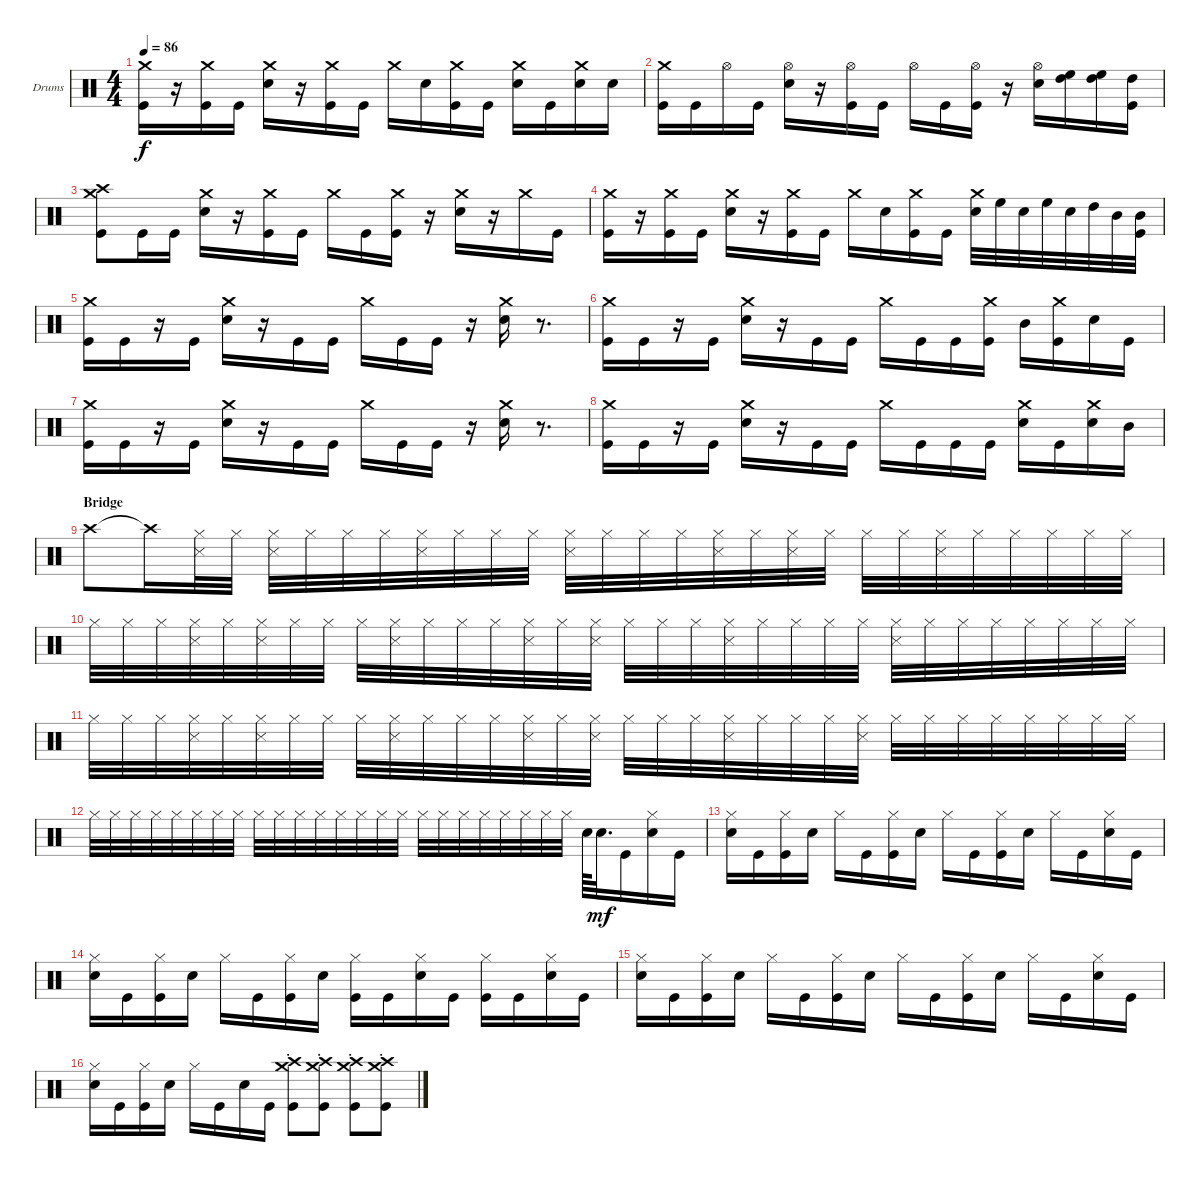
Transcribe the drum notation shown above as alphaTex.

\bracketExtendMode groupsimilarinstruments
\firstSystemTrackNameOrientation horizontal
\otherSystemsTrackNameOrientation horizontal
\track ("Drumkit" "Drums") {instrument percussion}
\staff {score}
\articulation defaults
\ts (4 4)
\tempo 86
\clef neutral
\ks c
("Crash medium (hit)" "Kick (hit)").16{dy f} r.16 ("Crash medium (hit)" "Kick (hit)").16 "Kick (hit)".16 ("Crash medium (hit)" "Snare (hit) 2").16 r.16 ("Crash medium (hit)" "Kick (hit)").16 "Kick (hit)".16 "Crash medium (hit)".16 "Snare (hit) 2".16 ("Crash medium (hit)" "Kick (hit)").16 "Kick (hit)".16 ("Crash medium (hit)" "Snare (hit) 2").16 "Kick (hit)".16 ("Crash medium (hit)" "Snare (hit) 2").16 "Snare (hit) 2".16 |
("Crash medium (hit)" "Kick (hit)").16 "Kick (hit)".16 "Hi-Hat (open)".16 "Kick (hit)".16 ("Hi-Hat (open)" "Snare (hit) 2").16 r.16 ("Hi-Hat (open)" "Kick (hit)").16 "Kick (hit)".16 "Hi-Hat (open)".16 "Kick (hit)".16 ("Hi-Hat (open)" "Kick (hit)").16 r.16 ("Hi-Hat (open)" "Snare (hit) 2").16 ("High Floor Tom (hit)" "High Tom (hit)").16 ("High Floor Tom (hit)" "High Tom (hit)").16 ("High Tom (hit)" "Kick (hit)").16 |
("Crash medium (hit)" "Crash high (hit)" "Kick (hit)").8 "Kick (hit)".16 "Kick (hit)".16 ("Crash medium (hit)" "Snare (hit) 2").16 r.16 ("Crash medium (hit)" "Kick (hit)").16 "Kick (hit)".16 "Crash medium (hit)".16 "Kick (hit)".16 ("Crash medium (hit)" "Kick (hit)").16 r.16 ("Crash medium (hit)" "Snare (hit) 2").16 r.16 "Crash medium (hit)".16 "Kick (hit)".16 |
("Crash medium (hit)" "Kick (hit)").16 r.16 ("Crash medium (hit)" "Kick (hit)").16 "Kick (hit)".16 ("Crash medium (hit)" "Snare (hit) 2").16 r.16 ("Crash medium (hit)" "Kick (hit)").16 "Kick (hit)".16 "Crash medium (hit)".16 "Snare (hit) 2".16 ("Crash medium (hit)" "Kick (hit)").16 "Kick (hit)".16 ("Crash medium (hit)" "Snare (hit) 2").32 "High Floor Tom (hit)".32 "Snare (hit) 2".32 "High Floor Tom (hit)".32 "Snare (hit) 2".32 "High Tom (hit)".32 "Mid Tom (hit)".32 ("Mid Tom (hit)" "Kick (hit)").32 |
("Crash medium (hit)" "Kick (hit)").16 "Kick (hit)".16 r.16 "Kick (hit)".16 ("Crash medium (hit)" "Snare (hit) 2").16 r.16 "Kick (hit)".16 "Kick (hit)".16 "Crash medium (hit)".16 "Kick (hit)".16 "Kick (hit)".16 r.16 ("Crash medium (hit)" "Snare (hit) 2").16 r.8{d} |
("Crash medium (hit)" "Kick (hit)").16 "Kick (hit)".16 r.16 "Kick (hit)".16 ("Crash medium (hit)" "Snare (hit) 2").16 r.16 "Kick (hit)".16 "Kick (hit)".16 "Crash medium (hit)".16 "Kick (hit)".16 "Kick (hit)".16 ("Kick (hit)" "Crash medium (hit)").16 "Mid Tom (hit)".16 ("Kick (hit)" "Crash medium (hit)").16 "Snare (hit) 2".16 "Kick (hit)".16 |
("Crash medium (hit)" "Kick (hit)").16 "Kick (hit)".16 r.16 "Kick (hit)".16 ("Crash medium (hit)" "Snare (hit) 2").16 r.16 "Kick (hit)".16 "Kick (hit)".16 "Crash medium (hit)".16 "Kick (hit)".16 "Kick (hit)".16 r.16 ("Crash medium (hit)" "Snare (hit) 2").16 r.8{d} |
("Crash medium (hit)" "Kick (hit)").16 "Kick (hit)".16 r.16 "Kick (hit)".16 ("Crash medium (hit)" "Snare (hit) 2").16 r.16 "Kick (hit)".16 "Kick (hit)".16 "Crash medium (hit)".16 "Kick (hit)".16 "Kick (hit)".16 "Kick (hit)".16 ("Crash medium (hit)" "Snare (hit) 2").16 "Kick (hit)".16 ("Crash medium (hit)" "Snare (hit) 2").16 "Mid Tom (hit)".16 |
\section ("" "Bridge")
\scale
0.50015 "Crash high (hit)".8 "Crash high (hit)"{t}.16 ("Hi-Hat (closed)" "Snare (side stick) 3").32 "Hi-Hat (closed)".32 ("Hi-Hat (closed)" "Snare (side stick) 3").32 "Hi-Hat (closed)".32 "Hi-Hat (closed)".32 "Hi-Hat (closed)".32 ("Hi-Hat (closed)" "Snare (side stick) 3").32 "Hi-Hat (closed)".32 "Hi-Hat (closed)".32 "Hi-Hat (closed)".32 ("Hi-Hat (closed)" "Snare (side stick) 3").32 "Hi-Hat (closed)".32 "Hi-Hat (closed)".32 "Hi-Hat (closed)".32 ("Hi-Hat (closed)" "Snare (side stick) 3").32 "Hi-Hat (closed)".32 ("Hi-Hat (closed)" "Snare (side stick) 3").32 "Hi-Hat (closed)".32 "Hi-Hat (closed)".32 "Hi-Hat (closed)".32 ("Hi-Hat (closed)" "Snare (side stick) 3").32 "Hi-Hat (closed)".32 "Hi-Hat (closed)".32 "Hi-Hat (closed)".32 "Hi-Hat (closed)".32 "Hi-Hat (closed)".32 |
\scale
0.499853 "Hi-Hat (closed)".32 "Hi-Hat (closed)".32 "Hi-Hat (closed)".32 ("Hi-Hat (closed)" "Snare (side stick) 3").32 "Hi-Hat (closed)".32 ("Hi-Hat (closed)" "Snare (side stick) 3").32 "Hi-Hat (closed)".32 "Hi-Hat (closed)".32 "Hi-Hat (closed)".32 ("Hi-Hat (closed)" "Snare (side stick) 3").32 "Hi-Hat (closed)".32 "Hi-Hat (closed)".32 "Hi-Hat (closed)".32 ("Hi-Hat (closed)" "Snare (side stick) 3").32 "Hi-Hat (closed)".32 ("Hi-Hat (closed)" "Snare (side stick) 3").32 "Hi-Hat (closed)".32 "Hi-Hat (closed)".32 "Hi-Hat (closed)".32 ("Hi-Hat (closed)" "Snare (side stick) 3").32 "Hi-Hat (closed)".32 "Hi-Hat (closed)".32 "Hi-Hat (closed)".32 "Hi-Hat (closed)".32 ("Hi-Hat (closed)" "Snare (side stick) 3").32 "Hi-Hat (closed)".32 "Hi-Hat (closed)".32 "Hi-Hat (closed)".32 "Hi-Hat (closed)".32 "Hi-Hat (closed)".32 "Hi-Hat (closed)".32 "Hi-Hat (closed)".32 |
\scale
0.501051 "Hi-Hat (closed)".32 "Hi-Hat (closed)".32 "Hi-Hat (closed)".32 ("Hi-Hat (closed)" "Snare (side stick) 3").32 "Hi-Hat (closed)".32 ("Hi-Hat (closed)" "Snare (side stick) 3").32 "Hi-Hat (closed)".32 "Hi-Hat (closed)".32 "Hi-Hat (closed)".32 ("Hi-Hat (closed)" "Snare (side stick) 3").32 "Hi-Hat (closed)".32 "Hi-Hat (closed)".32 "Hi-Hat (closed)".32 ("Hi-Hat (closed)" "Snare (side stick) 3").32 "Hi-Hat (closed)".32 ("Hi-Hat (closed)" "Snare (side stick) 3").32 "Hi-Hat (closed)".32 "Hi-Hat (closed)".32 "Hi-Hat (closed)".32 ("Hi-Hat (closed)" "Snare (side stick) 3").32 "Hi-Hat (closed)".32 "Hi-Hat (closed)".32 "Hi-Hat (closed)".32 ("Hi-Hat (closed)" "Snare (side stick) 3").32 "Hi-Hat (closed)".32 "Hi-Hat (closed)".32 "Hi-Hat (closed)".32 "Hi-Hat (closed)".32 "Hi-Hat (closed)".32 "Hi-Hat (closed)".32 "Hi-Hat (closed)".32 "Hi-Hat (closed)".32 |
\scale
0.498806 "Hi-Hat (closed)".32 "Hi-Hat (closed)".32 "Hi-Hat (closed)".32 "Hi-Hat (closed)".32 "Hi-Hat (closed)".32 "Hi-Hat (closed)".32 "Hi-Hat (closed)".32 "Hi-Hat (closed)".32 "Hi-Hat (closed)".32 "Hi-Hat (closed)".32 "Hi-Hat (closed)".32 "Hi-Hat (closed)".32 "Hi-Hat (closed)".32 "Hi-Hat (closed)".32 "Hi-Hat (closed)".32 "Hi-Hat (closed)".32 "Hi-Hat (closed)".32 "Hi-Hat (closed)".32 "Hi-Hat (closed)".32 "Hi-Hat (closed)".32 "Hi-Hat (closed)".32 "Hi-Hat (closed)".32 "Hi-Hat (closed)".32 "Hi-Hat (closed)".32 "Snare (hit) 2".64 "Snare (hit) 2".32{d dy mf} "Kick (hit)".16 ("Snare (hit) 2" "Hi-Hat (closed)").16 "Kick (hit)".16 |
("Hi-Hat (closed)" "Snare (hit) 2").16 "Kick (hit)".16 ("Hi-Hat (closed)" "Kick (hit)").16 "Snare (hit) 2".16 "Hi-Hat (closed)".16 "Kick (hit)".16 ("Hi-Hat (closed)" "Kick (hit)").16 "Snare (hit) 2".16 "Hi-Hat (closed)".16 "Kick (hit)".16 ("Kick (hit)" "Hi-Hat (closed)").16 "Snare (hit) 2".16 "Hi-Hat (closed)".16 "Kick (hit)".16 ("Snare (hit) 2" "Hi-Hat (closed)").16 "Kick (hit)".16 |
("Hi-Hat (closed)" "Snare (hit) 2").16 "Kick (hit)".16 ("Hi-Hat (closed)" "Kick (hit)").16 "Snare (hit) 2".16 "Hi-Hat (closed)".16 "Kick (hit)".16 ("Hi-Hat (closed)" "Kick (hit)").16 "Snare (hit) 2".16 ("Kick (hit)" "Hi-Hat (closed)").16 "Kick (hit)".16 ("Snare (hit) 2" "Hi-Hat (closed)").16 "Kick (hit)".16 ("Kick (hit)" "Hi-Hat (closed)").16 "Kick (hit)".16 ("Snare (hit) 2" "Hi-Hat (closed)").16 "Kick (hit)".16 |
("Hi-Hat (closed)" "Snare (hit) 2").16 "Kick (hit)".16 ("Hi-Hat (closed)" "Kick (hit)").16 "Snare (hit) 2".16 "Hi-Hat (closed)".16 "Kick (hit)".16 ("Hi-Hat (closed)" "Kick (hit)").16 "Snare (hit) 2".16 "Hi-Hat (closed)".16 "Kick (hit)".16 ("Kick (hit)" "Hi-Hat (closed)").16 "Snare (hit) 2".16 "Hi-Hat (closed)".16 "Kick (hit)".16 ("Snare (hit) 2" "Hi-Hat (closed)").16 "Kick (hit)".16 |
("Hi-Hat (closed)" "Snare (hit) 2").16 "Kick (hit)".16 ("Hi-Hat (closed)" "Kick (hit)").16 "Snare (hit) 2".16 "Hi-Hat (closed)".16 "Kick (hit)".16 "Snare (hit) 2".16 "Kick (hit)".16 ("Crash medium (hit)"{st} "Kick (hit)"{st} "Crash high (hit)"{st}).8 ("Crash medium (hit)"{st} "Kick (hit)"{st} "Crash high (hit)"{st}).8 ("Crash medium (hit)"{st} "Kick (hit)"{st} "Crash high (hit)"{st}).8 ("Crash medium (hit)"{st} "Kick (hit)"{st} "Crash high (hit)"{st}).8
